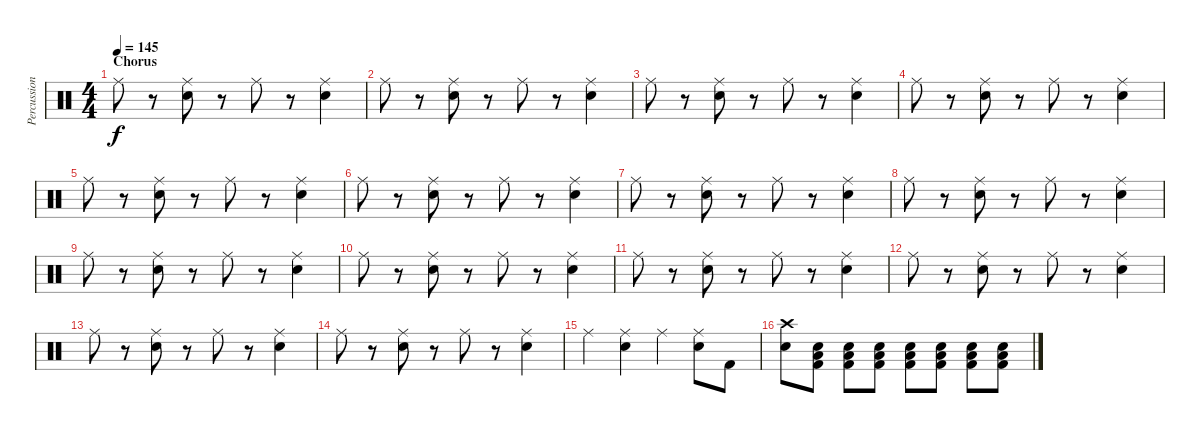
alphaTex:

\track ("Percussion" "Percussion") {instrument percussion}
\staff {score}
\articulation defaults
\ts (4 4)
\section ("" "Chorus")
\tempo 145
\clef neutral
\ks c "Ride (middle)".8{dy f}
r.8 ("Ride (middle)" "Electric Snare (hit)").8 r.8 "Ride (middle)".8 r.8 ("Ride (middle)" "Electric Snare (hit)").4 |
"Ride (middle)".8 r.8 ("Ride (middle)" "Electric Snare (hit)").8 r.8 "Ride (middle)".8 r.8 ("Ride (middle)" "Electric Snare (hit)").4 |
"Ride (middle)".8 r.8 ("Ride (middle)" "Electric Snare (hit)").8 r.8 "Ride (middle)".8 r.8 ("Ride (middle)" "Electric Snare (hit)").4 |
"Ride (middle)".8 r.8 ("Ride (middle)" "Electric Snare (hit)").8 r.8 "Ride (middle)".8 r.8 ("Ride (middle)" "Electric Snare (hit)").4 |
"Ride (middle)".8 r.8 ("Ride (middle)" "Electric Snare (hit)").8 r.8 "Ride (middle)".8 r.8 ("Ride (middle)" "Electric Snare (hit)").4 |
"Ride (middle)".8 r.8 ("Ride (middle)" "Electric Snare (hit)").8 r.8 "Ride (middle)".8 r.8 ("Ride (middle)" "Electric Snare (hit)").4 |
"Ride (middle)".8 r.8 ("Ride (middle)" "Electric Snare (hit)").8 r.8 "Ride (middle)".8 r.8 ("Ride (middle)" "Electric Snare (hit)").4 |
"Ride (middle)".8 r.8 ("Ride (middle)" "Electric Snare (hit)").8 r.8 "Ride (middle)".8 r.8 ("Ride (middle)" "Electric Snare (hit)").4 |
"Ride (middle)".8 r.8 ("Ride (middle)" "Electric Snare (hit)").8 r.8 "Ride (middle)".8 r.8 ("Ride (middle)" "Electric Snare (hit)").4 |
"Ride (middle)".8 r.8 ("Ride (middle)" "Electric Snare (hit)").8 r.8 "Ride (middle)".8 r.8 ("Ride (middle)" "Electric Snare (hit)").4 |
"Ride (middle)".8 r.8 ("Ride (middle)" "Electric Snare (hit)").8 r.8 "Ride (middle)".8 r.8 ("Ride (middle)" "Electric Snare (hit)").4 |
"Ride (middle)".8 r.8 ("Ride (middle)" "Electric Snare (hit)").8 r.8 "Ride (middle)".8 r.8 ("Ride (middle)" "Electric Snare (hit)").4 |
"Ride (middle)".8 r.8 ("Ride (middle)" "Electric Snare (hit)").8 r.8 "Ride (middle)".8 r.8 ("Ride (middle)" "Electric Snare (hit)").4 |
"Ride (middle)".8 r.8 ("Ride (middle)" "Electric Snare (hit)").8 r.8 "Ride (middle)".8 r.8 ("Ride (middle)" "Electric Snare (hit)").4 |
"Ride (middle)".4 ("Ride (middle)" "Electric Snare (hit)").4 "Ride (middle)".4 ("Ride (middle)" "Electric Snare (hit)").8 "Kick (hit) 2".8 |
("Crash high (hit)" "Electric Snare (hit)").8 ("Kick (hit) 2" "Low Floor Tom (hit)" "Electric Snare (hit)").8 ("Kick (hit) 2" "Low Floor Tom (hit)" "Electric Snare (hit)").8 ("Kick (hit) 2" "Low Floor Tom (hit)" "Electric Snare (hit)").8 ("Kick (hit) 2" "Low Floor Tom (hit)" "Electric Snare (hit)").8 ("Kick (hit) 2" "Low Floor Tom (hit)" "Electric Snare (hit)").8 ("Kick (hit) 2" "Low Floor Tom (hit)" "Electric Snare (hit)").8 ("Kick (hit) 2" "Low Floor Tom (hit)" "Electric Snare (hit)").8
